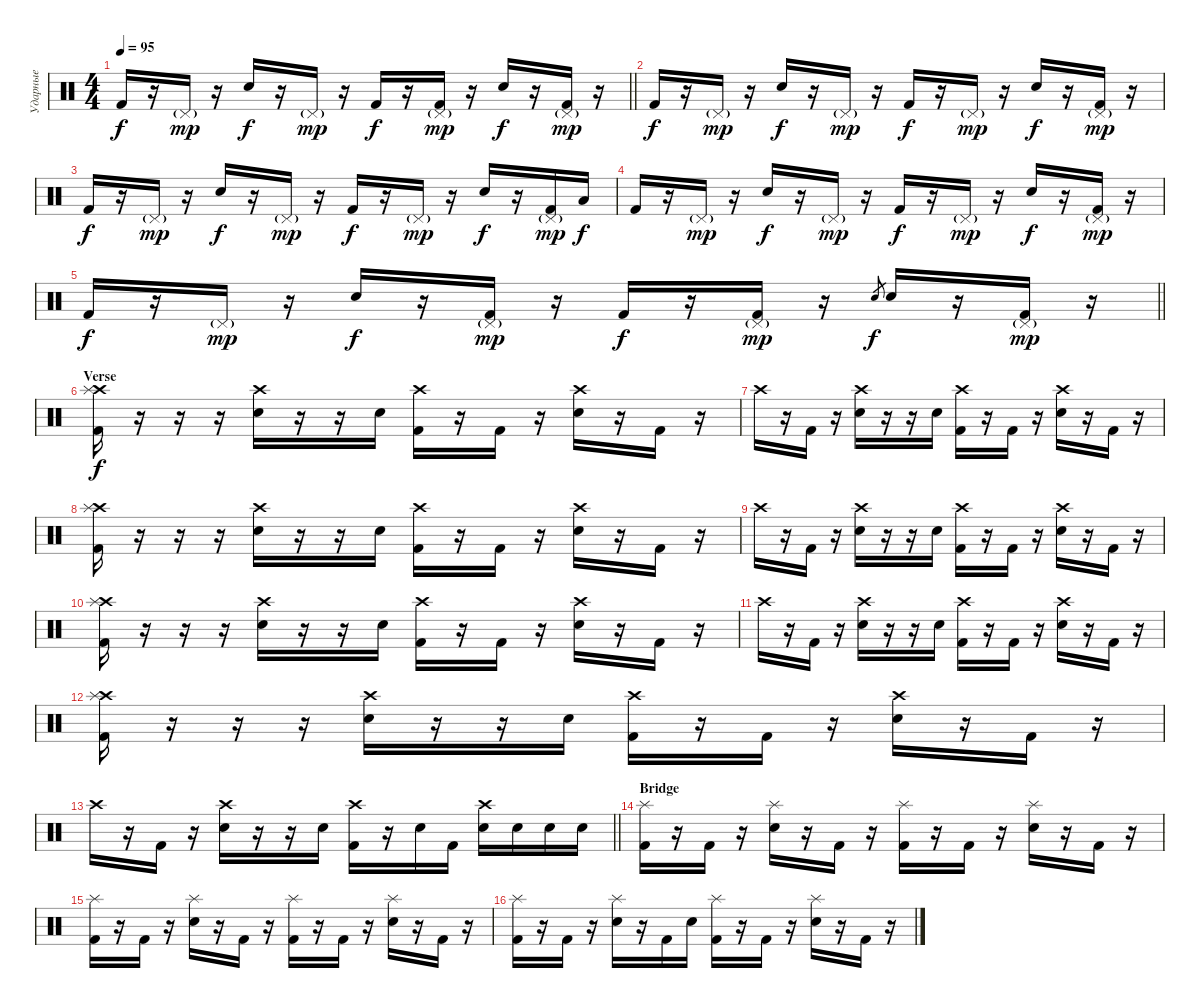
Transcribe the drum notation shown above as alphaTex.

\track ("Ударные" "Ударные") {instrument percussion}
\staff {score}
\articulation defaults
\ts (4 4)
\tempo 95
\clef neutral
\barLineRight lightlight
\ks c "Kick (hit) 2".16{dy f}
r.16 "Pedal Hi-Hat (hit)"{g}.16{dy mp} r.16 "Snare (hit) 2".16{dy f} r.16 "Pedal Hi-Hat (hit)"{g}.16{dy mp} r.16 "Kick (hit) 2".16{dy f} r.16 ("Pedal Hi-Hat (hit)"{g} "Kick (hit) 2").16{dy mp} r.16 "Snare (hit) 2".16{dy f} r.16 ("Pedal Hi-Hat (hit)"{g} "Kick (hit) 2").16{dy mp} r.16 |
"Kick (hit) 2".16{dy f} r.16 "Pedal Hi-Hat (hit)"{g}.16{dy mp} r.16 "Snare (hit) 2".16{dy f} r.16 "Pedal Hi-Hat (hit)"{g}.16{dy mp} r.16 "Kick (hit) 2".16{dy f} r.16 "Pedal Hi-Hat (hit)"{g}.16{dy mp} r.16 "Snare (hit) 2".16{dy f} r.16 ("Pedal Hi-Hat (hit)"{g} "Kick (hit) 2").16{dy mp} r.16 |
"Kick (hit) 2".16{dy f} r.16 "Pedal Hi-Hat (hit)"{g}.16{dy mp} r.16 "Snare (hit) 2".16{dy f} r.16 "Pedal Hi-Hat (hit)"{g}.16{dy mp} r.16 "Kick (hit) 2".16{dy f} r.16 "Pedal Hi-Hat (hit)"{g}.16{dy mp} r.16 "Snare (hit) 2".16{dy f} r.16 ("Pedal Hi-Hat (hit)"{g} "Kick (hit) 2").16{dy mp} "Low Tom (hit)".16{dy f} |
"Kick (hit) 2".16 r.16 "Pedal Hi-Hat (hit)"{g}.16{dy mp} r.16 "Snare (hit) 2".16{dy f} r.16 "Pedal Hi-Hat (hit)"{g}.16{dy mp} r.16 "Kick (hit) 2".16{dy f} r.16 "Pedal Hi-Hat (hit)"{g}.16{dy mp} r.16 "Snare (hit) 2".16{dy f} r.16 ("Pedal Hi-Hat (hit)"{g} "Kick (hit) 2").16{dy mp} r.16 |
\barLineRight lightlight "Kick (hit) 2".16{dy f}
r.16 "Pedal Hi-Hat (hit)"{g}.16{dy mp} r.16 "Snare (hit) 2".16{dy f} r.16 ("Pedal Hi-Hat (hit)"{g} "Kick (hit) 2").16{dy mp} r.16 "Kick (hit) 2".16{dy f} r.16 ("Pedal Hi-Hat (hit)"{g} "Kick (hit) 2").16{dy mp} r.16 "Snare (hit) 2".8{gr dy f} "Snare (hit) 2".16 r.16 ("Pedal Hi-Hat (hit)"{g} "Kick (hit) 2").16{dy mp} r.16 |
\section ("" "Verse")
("Crash high (hit)" "Splash (hit)" "Kick (hit) 2").16{dy f} r.16 r.16 r.16 ("Crash high (hit)" "Snare (hit) 2").16 r.16 r.16 "Snare (hit) 2".16 ("Crash high (hit)" "Kick (hit) 2").16 r.16 "Kick (hit) 2".16 r.16 ("Crash high (hit)" "Snare (hit) 2").16 r.16 "Kick (hit) 2".16 r.16 |
"Crash high (hit)".16 r.16 "Kick (hit) 2".16 r.16 ("Crash high (hit)" "Snare (hit) 2").16 r.16 r.16 "Snare (hit) 2".16 ("Crash high (hit)" "Kick (hit) 2").16 r.16 "Kick (hit) 2".16 r.16 ("Crash high (hit)" "Snare (hit) 2").16 r.16 "Kick (hit) 2".16 r.16 |
("Crash high (hit)" "Splash (hit)" "Kick (hit) 2").16 r.16 r.16 r.16 ("Crash high (hit)" "Snare (hit) 2").16 r.16 r.16 "Snare (hit) 2".16 ("Crash high (hit)" "Kick (hit) 2").16 r.16 "Kick (hit) 2".16 r.16 ("Crash high (hit)" "Snare (hit) 2").16 r.16 "Kick (hit) 2".16 r.16 |
"Crash high (hit)".16 r.16 "Kick (hit) 2".16 r.16 ("Crash high (hit)" "Snare (hit) 2").16 r.16 r.16 "Snare (hit) 2".16 ("Crash high (hit)" "Kick (hit) 2").16 r.16 "Kick (hit) 2".16 r.16 ("Crash high (hit)" "Snare (hit) 2").16 r.16 "Kick (hit) 2".16 r.16 |
("Crash high (hit)" "Splash (hit)" "Kick (hit) 2").16 r.16 r.16 r.16 ("Crash high (hit)" "Snare (hit) 2").16 r.16 r.16 "Snare (hit) 2".16 ("Crash high (hit)" "Kick (hit) 2").16 r.16 "Kick (hit) 2".16 r.16 ("Crash high (hit)" "Snare (hit) 2").16 r.16 "Kick (hit) 2".16 r.16 |
"Crash high (hit)".16 r.16 "Kick (hit) 2".16 r.16 ("Crash high (hit)" "Snare (hit) 2").16 r.16 r.16 "Snare (hit) 2".16 ("Crash high (hit)" "Kick (hit) 2").16 r.16 "Kick (hit) 2".16 r.16 ("Crash high (hit)" "Snare (hit) 2").16 r.16 "Kick (hit) 2".16 r.16 |
("Crash high (hit)" "Splash (hit)" "Kick (hit) 2").16 r.16 r.16 r.16 ("Crash high (hit)" "Snare (hit) 2").16 r.16 r.16 "Snare (hit) 2".16 ("Crash high (hit)" "Kick (hit) 2").16 r.16 "Kick (hit) 2".16 r.16 ("Crash high (hit)" "Snare (hit) 2").16 r.16 "Kick (hit) 2".16 r.16 |
\barLineRight lightlight "Crash high (hit)".16
r.16 "Kick (hit) 2".16 r.16 ("Crash high (hit)" "Snare (hit) 2").16 r.16 r.16 "Snare (hit) 2".16 ("Crash high (hit)" "Kick (hit) 2").16 r.16 "Snare (hit) 2".16 "Kick (hit) 2".16 ("Crash high (hit)" "Snare (hit) 2").16 "Snare (hit) 2".16 "Snare (hit) 2".16 "Snare (hit) 2".16 |
\section ("" "Bridge")
("Splash (hit)" "Kick (hit) 2").16 r.16 "Kick (hit) 2".16 r.16 ("Splash (hit)" "Snare (hit) 2").16 r.16 "Kick (hit) 2".16 r.16 ("Splash (hit)" "Kick (hit) 2").16 r.16 "Kick (hit) 2".16 r.16 ("Splash (hit)" "Snare (hit) 2").16 r.16 "Kick (hit) 2".16 r.16 |
("Splash (hit)" "Kick (hit) 2").16 r.16 "Kick (hit) 2".16 r.16 ("Splash (hit)" "Snare (hit) 2").16 r.16 "Kick (hit) 2".16 r.16 ("Splash (hit)" "Kick (hit) 2").16 r.16 "Kick (hit) 2".16 r.16 ("Splash (hit)" "Snare (hit) 2").16 r.16 "Kick (hit) 2".16 r.16 |
("Splash (hit)" "Kick (hit) 2").16 r.16 "Kick (hit) 2".16 r.16 ("Splash (hit)" "Snare (hit) 2").16 r.16 "Kick (hit) 2".16 "Snare (hit) 2".16 ("Splash (hit)" "Kick (hit) 2").16 r.16 "Kick (hit) 2".16 r.16 ("Splash (hit)" "Snare (hit) 2").16 r.16 "Kick (hit) 2".16 r.16
